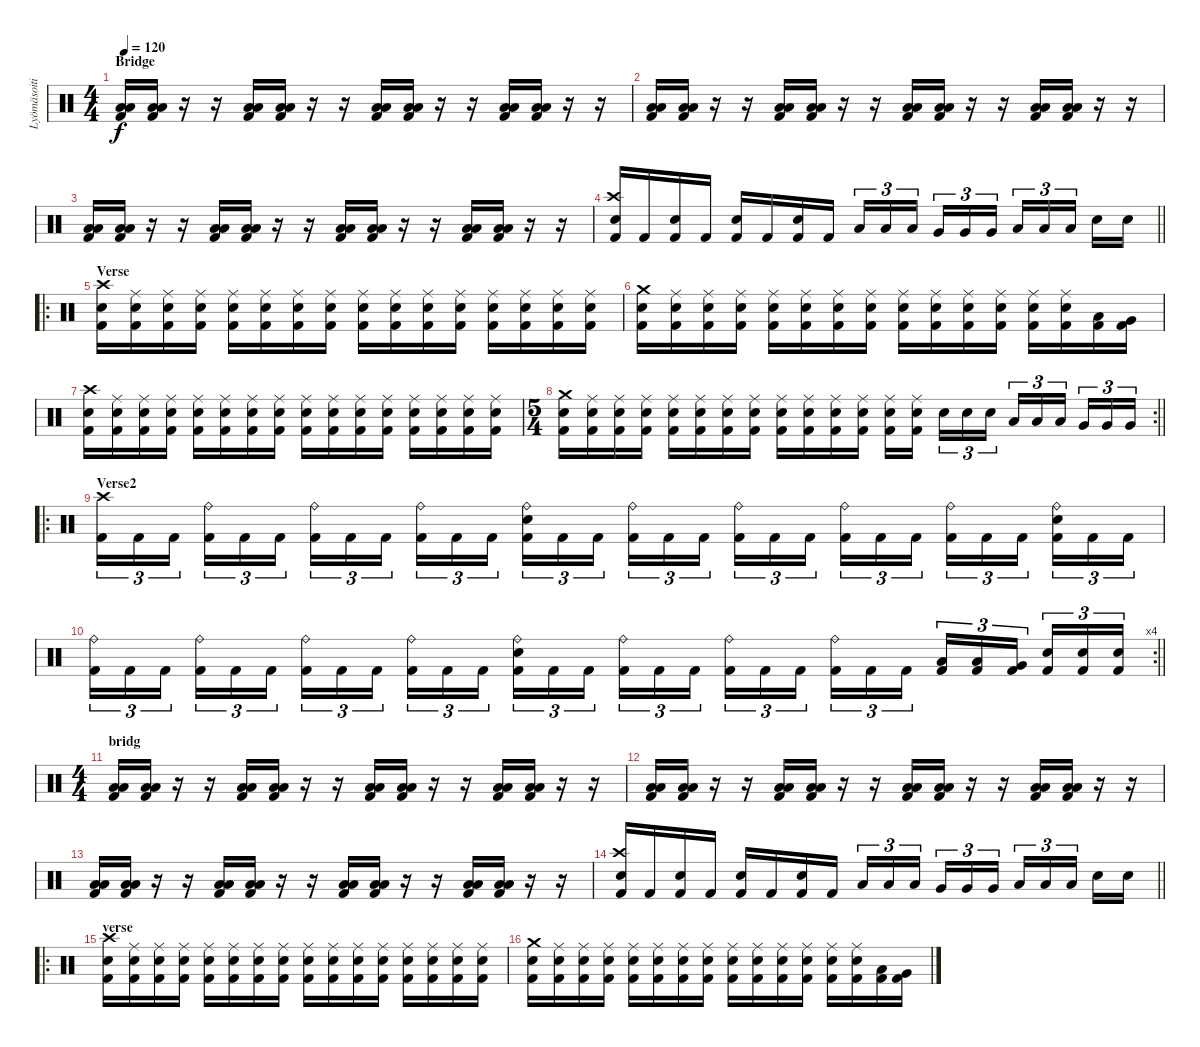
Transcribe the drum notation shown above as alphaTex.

\track ("Lyömäsoitin" "Lyömäsoiti") {instrument percussion}
\staff {score}
\articulation defaults
\ts (4 4)
\section ("" "Bridge")
\tempo 120
\clef neutral
\ks c
("Low Tom (hit)" "Low Floor Tom (hit)" "Kick (hit) 2").16{dy f} ("Low Tom (hit)" "Low Floor Tom (hit)" "Kick (hit) 2").16 r.16 r.16 ("Low Tom (hit)" "Low Floor Tom (hit)" "Kick (hit) 2").16 ("Low Tom (hit)" "Low Floor Tom (hit)" "Kick (hit) 2").16 r.16 r.16 ("Low Tom (hit)" "Low Floor Tom (hit)" "Kick (hit) 2").16 ("Low Tom (hit)" "Low Floor Tom (hit)" "Kick (hit) 2").16 r.16 r.16 ("Low Tom (hit)" "Low Floor Tom (hit)" "Kick (hit) 2").16 ("Low Tom (hit)" "Low Floor Tom (hit)" "Kick (hit) 2").16 r.16 r.16 |
("Low Tom (hit)" "Low Floor Tom (hit)" "Kick (hit) 2").16 ("Low Tom (hit)" "Low Floor Tom (hit)" "Kick (hit) 2").16 r.16 r.16 ("Low Tom (hit)" "Low Floor Tom (hit)" "Kick (hit) 2").16 ("Low Tom (hit)" "Low Floor Tom (hit)" "Kick (hit) 2").16 r.16 r.16 ("Low Tom (hit)" "Low Floor Tom (hit)" "Kick (hit) 2").16 ("Low Tom (hit)" "Low Floor Tom (hit)" "Kick (hit) 2").16 r.16 r.16 ("Low Tom (hit)" "Low Floor Tom (hit)" "Kick (hit) 2").16 ("Low Tom (hit)" "Low Floor Tom (hit)" "Kick (hit) 2").16 r.16 r.16 |
("Low Tom (hit)" "Low Floor Tom (hit)" "Kick (hit) 2").16 ("Low Tom (hit)" "Low Floor Tom (hit)" "Kick (hit) 2").16 r.16 r.16 ("Low Tom (hit)" "Low Floor Tom (hit)" "Kick (hit) 2").16 ("Low Tom (hit)" "Low Floor Tom (hit)" "Kick (hit) 2").16 r.16 r.16 ("Low Tom (hit)" "Low Floor Tom (hit)" "Kick (hit) 2").16 ("Low Tom (hit)" "Low Floor Tom (hit)" "Kick (hit) 2").16 r.16 r.16 ("Low Tom (hit)" "Low Floor Tom (hit)" "Kick (hit) 2").16 ("Low Tom (hit)" "Low Floor Tom (hit)" "Kick (hit) 2").16 r.16 r.16 |
\barLineRight lightlight
("Crash high (hit)" "Electric Snare (hit)" "Kick (hit) 2").16 "Kick (hit) 2".16 ("Electric Snare (hit)" "Kick (hit) 2").16 "Kick (hit) 2".16 ("Electric Snare (hit)" "Kick (hit) 2").16 "Kick (hit) 2".16 ("Electric Snare (hit)" "Kick (hit) 2").16 "Kick (hit) 2".16 "Low Tom (hit)".16{tu (3 2)} "Low Tom (hit)".16{tu (3 2)} "Low Tom (hit)".16{tu (3 2) beam splitsecondary} "Very Low Tom (hit)".16{tu (3 2)} "Very Low Tom (hit)".16{tu (3 2)} "Very Low Tom (hit)".16{tu (3 2)} "Low Floor Tom (hit)".16{tu (3 2)} "Low Floor Tom (hit)".16{tu (3 2)} "Low Floor Tom (hit)".16{tu (3 2) beam splitsecondary} "Electric Snare (hit)".16 "Electric Snare (hit)".16 |
\ro
\section ("" "Verse")
("Crash high (hit)" "Electric Snare (hit)" "Kick (hit) 2").16 ("Ride (middle)" "Electric Snare (hit)" "Kick (hit) 2").16 ("Ride (middle)" "Electric Snare (hit)" "Kick (hit) 2").16 ("Ride (middle)" "Electric Snare (hit)" "Kick (hit) 2").16 ("Ride (middle)" "Electric Snare (hit)" "Kick (hit) 2").16 ("Ride (middle)" "Electric Snare (hit)" "Kick (hit) 2").16 ("Ride (middle)" "Electric Snare (hit)" "Kick (hit) 2").16 ("Ride (middle)" "Electric Snare (hit)" "Kick (hit) 2").16 ("Ride (middle)" "Electric Snare (hit)" "Kick (hit) 2").16 ("Ride (middle)" "Electric Snare (hit)" "Kick (hit) 2").16 ("Ride (middle)" "Electric Snare (hit)" "Kick (hit) 2").16 ("Ride (middle)" "Electric Snare (hit)" "Kick (hit) 2").16 ("Ride (middle)" "Electric Snare (hit)" "Kick (hit) 2").16 ("Ride (middle)" "Electric Snare (hit)" "Kick (hit) 2").16 ("Ride (middle)" "Electric Snare (hit)" "Kick (hit) 2").16 ("Ride (middle)" "Electric Snare (hit)" "Kick (hit) 2").16 |
("Crash medium (hit)" "Electric Snare (hit)" "Kick (hit) 2").16 ("Ride (middle)" "Electric Snare (hit)" "Kick (hit) 2").16 ("Ride (middle)" "Electric Snare (hit)" "Kick (hit) 2").16 ("Ride (middle)" "Electric Snare (hit)" "Kick (hit) 2").16 ("Ride (middle)" "Electric Snare (hit)" "Kick (hit) 2").16 ("Ride (middle)" "Electric Snare (hit)" "Kick (hit) 2").16 ("Ride (middle)" "Electric Snare (hit)" "Kick (hit) 2").16 ("Ride (middle)" "Electric Snare (hit)" "Kick (hit) 2").16 ("Ride (middle)" "Electric Snare (hit)" "Kick (hit) 2").16 ("Ride (middle)" "Electric Snare (hit)" "Kick (hit) 2").16 ("Ride (middle)" "Electric Snare (hit)" "Kick (hit) 2").16 ("Ride (middle)" "Electric Snare (hit)" "Kick (hit) 2").16 ("Ride (middle)" "Electric Snare (hit)" "Kick (hit) 2").16 ("Ride (middle)" "Electric Snare (hit)" "Kick (hit) 2").16 ("Low Tom (hit)" "Kick (hit) 2").16 ("Very Low Tom (hit)" "Kick (hit) 2").16 |
("Crash high (hit)" "Electric Snare (hit)" "Kick (hit) 2").16 ("Ride (middle)" "Electric Snare (hit)" "Kick (hit) 2").16 ("Ride (middle)" "Electric Snare (hit)" "Kick (hit) 2").16 ("Ride (middle)" "Electric Snare (hit)" "Kick (hit) 2").16 ("Ride (middle)" "Electric Snare (hit)" "Kick (hit) 2").16 ("Ride (middle)" "Electric Snare (hit)" "Kick (hit) 2").16 ("Ride (middle)" "Electric Snare (hit)" "Kick (hit) 2").16 ("Ride (middle)" "Electric Snare (hit)" "Kick (hit) 2").16 ("Ride (middle)" "Electric Snare (hit)" "Kick (hit) 2").16 ("Ride (middle)" "Electric Snare (hit)" "Kick (hit) 2").16 ("Ride (middle)" "Electric Snare (hit)" "Kick (hit) 2").16 ("Ride (middle)" "Electric Snare (hit)" "Kick (hit) 2").16 ("Ride (middle)" "Electric Snare (hit)" "Kick (hit) 2").16 ("Ride (middle)" "Electric Snare (hit)" "Kick (hit) 2").16 ("Ride (middle)" "Electric Snare (hit)" "Kick (hit) 2").16 ("Ride (middle)" "Electric Snare (hit)" "Kick (hit) 2").16 |
\rc 2
\ts (5 4)
\barLineRight lightlight
("Crash medium (hit)" "Electric Snare (hit)" "Kick (hit) 2").16 ("Ride (middle)" "Electric Snare (hit)" "Kick (hit) 2").16 ("Ride (middle)" "Electric Snare (hit)" "Kick (hit) 2").16 ("Ride (middle)" "Electric Snare (hit)" "Kick (hit) 2").16 ("Ride (middle)" "Electric Snare (hit)" "Kick (hit) 2").16 ("Ride (middle)" "Electric Snare (hit)" "Kick (hit) 2").16 ("Ride (middle)" "Electric Snare (hit)" "Kick (hit) 2").16 ("Ride (middle)" "Electric Snare (hit)" "Kick (hit) 2").16 ("Ride (middle)" "Electric Snare (hit)" "Kick (hit) 2").16 ("Ride (middle)" "Electric Snare (hit)" "Kick (hit) 2").16 ("Ride (middle)" "Electric Snare (hit)" "Kick (hit) 2").16 ("Ride (middle)" "Electric Snare (hit)" "Kick (hit) 2").16 ("Ride (middle)" "Electric Snare (hit)" "Kick (hit) 2").16 ("Ride (middle)" "Electric Snare (hit)" "Kick (hit) 2").16{beam splitsecondary} "Electric Snare (hit)".16{tu (3 2)} "Electric Snare (hit)".16{tu (3 2)} "Electric Snare (hit)".16{tu (3 2)} "Low Tom (hit)".16{tu (3 2)} "Low Tom (hit)".16{tu (3 2)} "Low Tom (hit)".16{tu (3 2) beam splitsecondary} "Very Low Tom (hit)".16{tu (3 2)} "Very Low Tom (hit)".16{tu (3 2)} "Very Low Tom (hit)".16{tu (3 2)} |
\ro
\section ("" "Verse2")
("Crash high (hit)" "Kick (hit) 2").16{tu (3 2)} "Kick (hit) 2".16{tu (3 2)} "Kick (hit) 2".16{tu (3 2) beam splitsecondary} ("Ride (bell)" "Kick (hit) 2").16{tu (3 2)} "Kick (hit) 2".16{tu (3 2)} "Kick (hit) 2".16{tu (3 2)} ("Ride (bell)" "Kick (hit) 2").16{tu (3 2)} "Kick (hit) 2".16{tu (3 2)} "Kick (hit) 2".16{tu (3 2) beam splitsecondary} ("Ride (bell)" "Kick (hit) 2").16{tu (3 2)} "Kick (hit) 2".16{tu (3 2)} "Kick (hit) 2".16{tu (3 2)} ("Ride (bell)" "Electric Snare (hit)" "Kick (hit) 2").16{tu (3 2)} "Kick (hit) 2".16{tu (3 2)} "Kick (hit) 2".16{tu (3 2) beam splitsecondary} ("Ride (bell)" "Kick (hit) 2").16{tu (3 2)} "Kick (hit) 2".16{tu (3 2)} "Kick (hit) 2".16{tu (3 2)} ("Ride (bell)" "Kick (hit) 2").16{tu (3 2)} "Kick (hit) 2".16{tu (3 2)} "Kick (hit) 2".16{tu (3 2) beam splitsecondary} ("Ride (bell)" "Kick (hit) 2").16{tu (3 2)} "Kick (hit) 2".16{tu (3 2)} "Kick (hit) 2".16{tu (3 2)} ("Ride (bell)" "Kick (hit) 2").16{tu (3 2)} "Kick (hit) 2".16{tu (3 2)} "Kick (hit) 2".16{tu (3 2) beam splitsecondary} ("Ride (bell)" "Electric Snare (hit)" "Kick (hit) 2").16{tu (3 2)} "Kick (hit) 2".16{tu (3 2)} "Kick (hit) 2".16{tu (3 2)} |
\rc 4
\barLineRight lightlight
("Ride (bell)" "Kick (hit) 2").16{tu (3 2)} "Kick (hit) 2".16{tu (3 2)} "Kick (hit) 2".16{tu (3 2) beam splitsecondary} ("Ride (bell)" "Kick (hit) 2").16{tu (3 2)} "Kick (hit) 2".16{tu (3 2)} "Kick (hit) 2".16{tu (3 2)} ("Ride (bell)" "Kick (hit) 2").16{tu (3 2)} "Kick (hit) 2".16{tu (3 2)} "Kick (hit) 2".16{tu (3 2) beam splitsecondary} ("Ride (bell)" "Kick (hit) 2").16{tu (3 2)} "Kick (hit) 2".16{tu (3 2)} "Kick (hit) 2".16{tu (3 2)} ("Ride (bell)" "Electric Snare (hit)" "Kick (hit) 2").16{tu (3 2)} "Kick (hit) 2".16{tu (3 2)} "Kick (hit) 2".16{tu (3 2) beam splitsecondary} ("Ride (bell)" "Kick (hit) 2").16{tu (3 2)} "Kick (hit) 2".16{tu (3 2)} "Kick (hit) 2".16{tu (3 2)} ("Ride (bell)" "Kick (hit) 2").16{tu (3 2)} "Kick (hit) 2".16{tu (3 2)} "Kick (hit) 2".16{tu (3 2) beam splitsecondary} ("Ride (bell)" "Kick (hit) 2").16{tu (3 2)} "Kick (hit) 2".16{tu (3 2)} "Kick (hit) 2".16{tu (3 2)} ("Low Tom (hit)" "Kick (hit) 2").16{tu (3 2)} ("Low Tom (hit)" "Kick (hit) 2").16{tu (3 2)} ("Very Low Tom (hit)" "Kick (hit) 2").16{tu (3 2) beam splitsecondary} ("Electric Snare (hit)" "Kick (hit) 2").16{tu (3 2)} ("Electric Snare (hit)" "Kick (hit) 2").16{tu (3 2)} ("Electric Snare (hit)" "Kick (hit) 2").16{tu (3 2)} |
\ts (4 4)
\section ("" "bridg")
("Low Tom (hit)" "Low Floor Tom (hit)" "Kick (hit) 2").16 ("Low Tom (hit)" "Low Floor Tom (hit)" "Kick (hit) 2").16 r.16 r.16 ("Low Tom (hit)" "Low Floor Tom (hit)" "Kick (hit) 2").16 ("Low Tom (hit)" "Low Floor Tom (hit)" "Kick (hit) 2").16 r.16 r.16 ("Low Tom (hit)" "Low Floor Tom (hit)" "Kick (hit) 2").16 ("Low Tom (hit)" "Low Floor Tom (hit)" "Kick (hit) 2").16 r.16 r.16 ("Low Tom (hit)" "Low Floor Tom (hit)" "Kick (hit) 2").16 ("Low Tom (hit)" "Low Floor Tom (hit)" "Kick (hit) 2").16 r.16 r.16 |
("Low Tom (hit)" "Low Floor Tom (hit)" "Kick (hit) 2").16 ("Low Tom (hit)" "Low Floor Tom (hit)" "Kick (hit) 2").16 r.16 r.16 ("Low Tom (hit)" "Low Floor Tom (hit)" "Kick (hit) 2").16 ("Low Tom (hit)" "Low Floor Tom (hit)" "Kick (hit) 2").16 r.16 r.16 ("Low Tom (hit)" "Low Floor Tom (hit)" "Kick (hit) 2").16 ("Low Tom (hit)" "Low Floor Tom (hit)" "Kick (hit) 2").16 r.16 r.16 ("Low Tom (hit)" "Low Floor Tom (hit)" "Kick (hit) 2").16 ("Low Tom (hit)" "Low Floor Tom (hit)" "Kick (hit) 2").16 r.16 r.16 |
("Low Tom (hit)" "Low Floor Tom (hit)" "Kick (hit) 2").16 ("Low Tom (hit)" "Low Floor Tom (hit)" "Kick (hit) 2").16 r.16 r.16 ("Low Tom (hit)" "Low Floor Tom (hit)" "Kick (hit) 2").16 ("Low Tom (hit)" "Low Floor Tom (hit)" "Kick (hit) 2").16 r.16 r.16 ("Low Tom (hit)" "Low Floor Tom (hit)" "Kick (hit) 2").16 ("Low Tom (hit)" "Low Floor Tom (hit)" "Kick (hit) 2").16 r.16 r.16 ("Low Tom (hit)" "Low Floor Tom (hit)" "Kick (hit) 2").16 ("Low Tom (hit)" "Low Floor Tom (hit)" "Kick (hit) 2").16 r.16 r.16 |
\barLineRight lightlight
("Crash high (hit)" "Electric Snare (hit)" "Kick (hit) 2").16 "Kick (hit) 2".16 ("Electric Snare (hit)" "Kick (hit) 2").16 "Kick (hit) 2".16 ("Electric Snare (hit)" "Kick (hit) 2").16 "Kick (hit) 2".16 ("Electric Snare (hit)" "Kick (hit) 2").16 "Kick (hit) 2".16 "Low Tom (hit)".16{tu (3 2)} "Low Tom (hit)".16{tu (3 2)} "Low Tom (hit)".16{tu (3 2) beam splitsecondary} "Very Low Tom (hit)".16{tu (3 2)} "Very Low Tom (hit)".16{tu (3 2)} "Very Low Tom (hit)".16{tu (3 2)} "Low Floor Tom (hit)".16{tu (3 2)} "Low Floor Tom (hit)".16{tu (3 2)} "Low Floor Tom (hit)".16{tu (3 2) beam splitsecondary} "Electric Snare (hit)".16 "Electric Snare (hit)".16 |
\ro
\section ("" "verse")
("Crash high (hit)" "Electric Snare (hit)" "Kick (hit) 2").16 ("Ride (middle)" "Electric Snare (hit)" "Kick (hit) 2").16 ("Ride (middle)" "Electric Snare (hit)" "Kick (hit) 2").16 ("Ride (middle)" "Electric Snare (hit)" "Kick (hit) 2").16 ("Ride (middle)" "Electric Snare (hit)" "Kick (hit) 2").16 ("Ride (middle)" "Electric Snare (hit)" "Kick (hit) 2").16 ("Ride (middle)" "Electric Snare (hit)" "Kick (hit) 2").16 ("Ride (middle)" "Electric Snare (hit)" "Kick (hit) 2").16 ("Ride (middle)" "Electric Snare (hit)" "Kick (hit) 2").16 ("Ride (middle)" "Electric Snare (hit)" "Kick (hit) 2").16 ("Ride (middle)" "Electric Snare (hit)" "Kick (hit) 2").16 ("Ride (middle)" "Electric Snare (hit)" "Kick (hit) 2").16 ("Ride (middle)" "Electric Snare (hit)" "Kick (hit) 2").16 ("Ride (middle)" "Electric Snare (hit)" "Kick (hit) 2").16 ("Ride (middle)" "Electric Snare (hit)" "Kick (hit) 2").16 ("Ride (middle)" "Electric Snare (hit)" "Kick (hit) 2").16 |
("Crash medium (hit)" "Electric Snare (hit)" "Kick (hit) 2").16 ("Ride (middle)" "Electric Snare (hit)" "Kick (hit) 2").16 ("Ride (middle)" "Electric Snare (hit)" "Kick (hit) 2").16 ("Ride (middle)" "Electric Snare (hit)" "Kick (hit) 2").16 ("Ride (middle)" "Electric Snare (hit)" "Kick (hit) 2").16 ("Ride (middle)" "Electric Snare (hit)" "Kick (hit) 2").16 ("Ride (middle)" "Electric Snare (hit)" "Kick (hit) 2").16 ("Ride (middle)" "Electric Snare (hit)" "Kick (hit) 2").16 ("Ride (middle)" "Electric Snare (hit)" "Kick (hit) 2").16 ("Ride (middle)" "Electric Snare (hit)" "Kick (hit) 2").16 ("Ride (middle)" "Electric Snare (hit)" "Kick (hit) 2").16 ("Ride (middle)" "Electric Snare (hit)" "Kick (hit) 2").16 ("Ride (middle)" "Electric Snare (hit)" "Kick (hit) 2").16 ("Ride (middle)" "Electric Snare (hit)" "Kick (hit) 2").16 ("Low Tom (hit)" "Kick (hit) 2").16 ("Very Low Tom (hit)" "Kick (hit) 2").16
